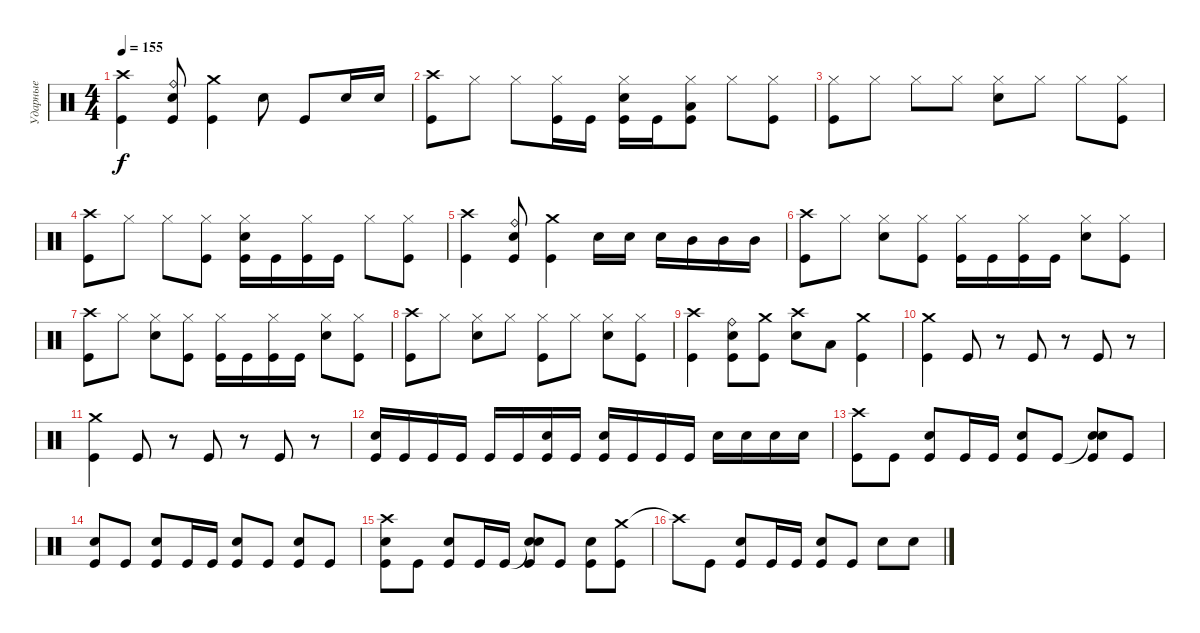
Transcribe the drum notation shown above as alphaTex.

\track ("Ударные" "Ударные") {instrument percussion}
\staff {score}
\articulation defaults
\ts (4 4)
\tempo 155
\clef neutral
\ks c
("Crash high (hit)" "Kick (hit)").4{dy f} ("Ride (bell)" "Electric Snare (hit)" "Kick (hit)").8 ("Crash medium (hit)" "Kick (hit)").4 "Electric Snare (hit)".8 "Kick (hit)".8 "Electric Snare (hit)".16 "Electric Snare (hit)".16 |
("Crash high (hit)" "Kick (hit)").8 "Hi-Hat (closed)".8 "Hi-Hat (closed)".8 ("Hi-Hat (closed)" "Kick (hit)").16 "Kick (hit)".16 ("Hi-Hat (closed)" "Electric Snare (hit)" "Kick (hit)").16 "Kick (hit)".16 ("Hi-Hat (closed)" "Low Tom (hit)" "Kick (hit)").8 "Hi-Hat (closed)".8 ("Hi-Hat (closed)" "Kick (hit)").8 |
("Hi-Hat (closed)" "Kick (hit)").8 "Hi-Hat (closed)".8 "Hi-Hat (closed)".8 "Hi-Hat (closed)".8 ("Hi-Hat (closed)" "Electric Snare (hit)").8 "Hi-Hat (closed)".8 "Hi-Hat (closed)".8 ("Hi-Hat (closed)" "Kick (hit)").8 |
("Crash high (hit)" "Kick (hit)").8 "Hi-Hat (closed)".8 "Hi-Hat (closed)".8 ("Hi-Hat (closed)" "Kick (hit)").8 ("Hi-Hat (closed)" "Electric Snare (hit)" "Kick (hit)").16 "Kick (hit)".16 ("Hi-Hat (closed)" "Kick (hit)").16 "Kick (hit)".16 "Hi-Hat (closed)".8 ("Hi-Hat (closed)" "Kick (hit)").8 |
("Crash high (hit)" "Kick (hit)").4 ("Ride (bell)" "Electric Snare (hit)" "Kick (hit)").8 ("Crash medium (hit)" "Kick (hit)").4 "Electric Snare (hit)".16 "Electric Snare (hit)".16 "Electric Snare (hit)".16 "Mid Tom (hit)".16 "Mid Tom (hit)".16 "Mid Tom (hit)".16 |
("Crash high (hit)" "Kick (hit)").8 "Hi-Hat (closed)".8 ("Hi-Hat (closed)" "Electric Snare (hit)").8 ("Hi-Hat (closed)" "Kick (hit)").8 ("Hi-Hat (closed)" "Kick (hit)").16 "Kick (hit)".16 ("Hi-Hat (closed)" "Kick (hit)").16 "Kick (hit)".16 ("Hi-Hat (closed)" "Electric Snare (hit)").8 ("Hi-Hat (closed)" "Kick (hit)").8 |
("Crash high (hit)" "Kick (hit)").8 "Hi-Hat (closed)".8 ("Hi-Hat (closed)" "Electric Snare (hit)").8 ("Hi-Hat (closed)" "Kick (hit)").8 ("Hi-Hat (closed)" "Kick (hit)").16 "Kick (hit)".16 ("Hi-Hat (closed)" "Kick (hit)").16 "Kick (hit)".16 ("Hi-Hat (closed)" "Electric Snare (hit)").8 ("Hi-Hat (closed)" "Kick (hit)").8 |
("Crash high (hit)" "Kick (hit)").8 "Hi-Hat (closed)".8 ("Hi-Hat (closed)" "Electric Snare (hit)").8 "Hi-Hat (closed)".8 ("Hi-Hat (closed)" "Kick (hit)").8 "Hi-Hat (closed)".8 ("Hi-Hat (closed)" "Electric Snare (hit)").8 ("Hi-Hat (closed)" "Kick (hit)").8 |
("Crash high (hit)" "Kick (hit)").4 ("Ride (bell)" "Electric Snare (hit)" "Kick (hit)").8 ("Crash medium (hit)" "Kick (hit)").8 ("Crash high (hit)" "Electric Snare (hit)").8 "Low Tom (hit)".8 ("Crash medium (hit)" "Kick (hit)").4 |
("Crash medium (hit)" "Kick (hit)").4 "Kick (hit)".8 r.8 "Kick (hit)".8 r.8 "Kick (hit)".8 r.8 |
("Crash medium (hit)" "Kick (hit)").4 "Kick (hit)".8 r.8 "Kick (hit)".8 r.8 "Kick (hit)".8 r.8 |
("Electric Snare (hit)" "Kick (hit)").16 "Kick (hit)".16 "Kick (hit)".16 "Kick (hit)".16 "Kick (hit)".16 "Kick (hit)".16 ("Electric Snare (hit)" "Kick (hit)").16 "Kick (hit)".16 ("Electric Snare (hit)" "Kick (hit)").16 "Kick (hit)".16 "Kick (hit)".16 "Kick (hit)".16 "Electric Snare (hit)".16 "Electric Snare (hit)".16 "Electric Snare (hit)".16 "Electric Snare (hit)".16 |
("Crash high (hit)" "Kick (hit)").8 "Kick (hit)".8 ("Electric Snare (hit)" "Kick (hit)").8 "Kick (hit)".16 "Kick (hit)".16 ("Electric Snare (hit)" "Kick (hit)").8 "Kick (hit)".8 ("Snare (hit)"{t} "Electric Snare (hit)" "Kick (hit)").8 "Kick (hit)".8 |
("Electric Snare (hit)" "Kick (hit)").8 "Kick (hit)".8 ("Electric Snare (hit)" "Kick (hit)").8 "Kick (hit)".16 "Kick (hit)".16 ("Electric Snare (hit)" "Kick (hit)").8 "Kick (hit)".8 ("Electric Snare (hit)" "Kick (hit)").8 "Kick (hit)".8 |
("Crash high (hit)" "Electric Snare (hit)" "Kick (hit)").8 "Kick (hit)".8 ("Electric Snare (hit)" "Kick (hit)").8 "Kick (hit)".16 "Kick (hit)".16 ("Snare (hit)"{t} "Electric Snare (hit)" "Kick (hit)").8 "Kick (hit)".8 ("Electric Snare (hit)" "Kick (hit)").8 ("Crash medium (hit)" "Kick (hit)").8 |
"Crash high (hit)"{t}.8 "Kick (hit)".8 ("Electric Snare (hit)" "Kick (hit)").8 "Kick (hit)".16 "Kick (hit)".16 ("Electric Snare (hit)" "Kick (hit)").8 "Kick (hit)".8 "Electric Snare (hit)".8 "Electric Snare (hit)".8
